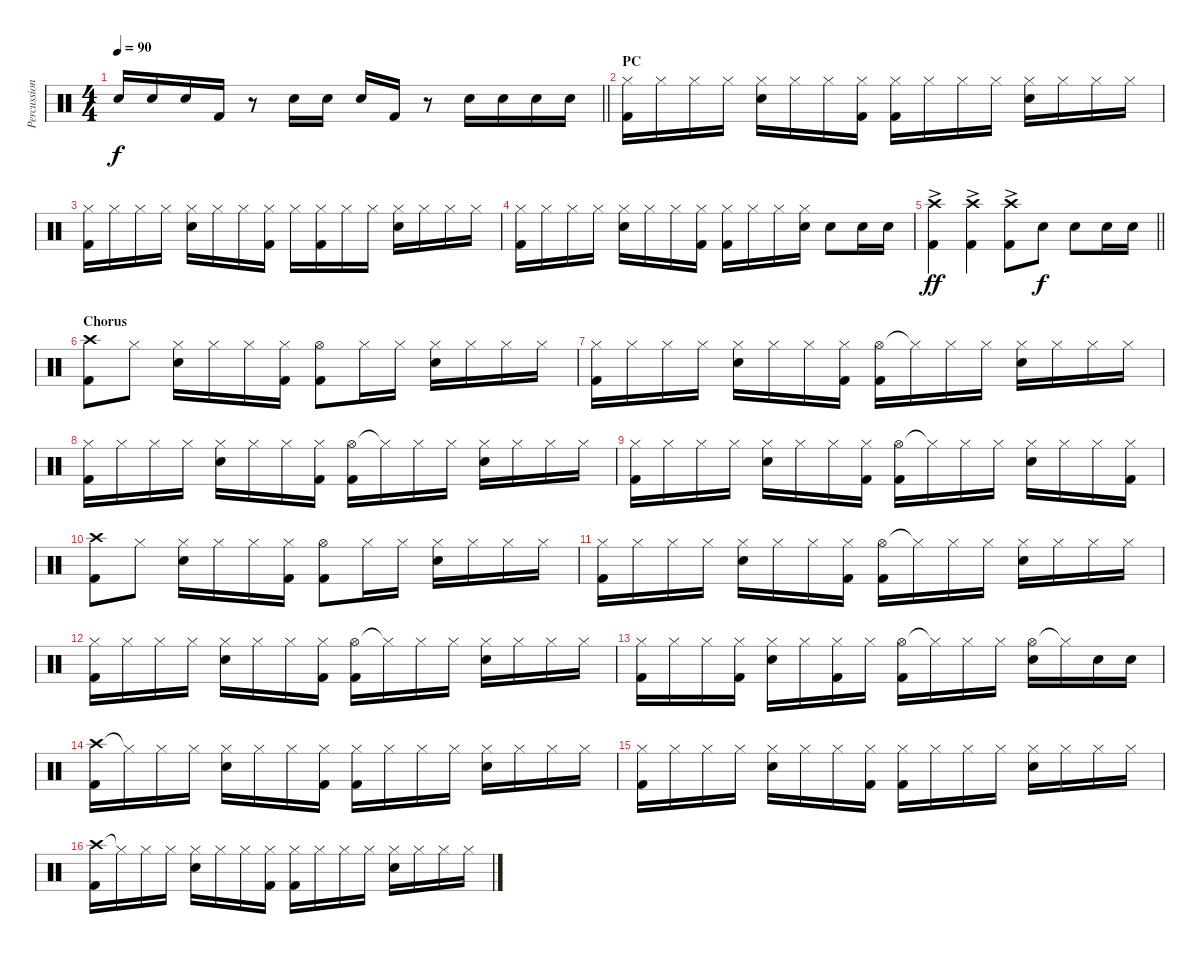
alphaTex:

\track ("Percussion" "Percussion") {instrument percussion}
\staff {score}
\articulation defaults
\ts (4 4)
\tempo 90
\clef neutral
\barLineRight lightlight
\ks c "Electric Snare (hit)".16{dy f} "Electric Snare (hit)".16 "Electric Snare (hit)".16 "Kick (hit) 2".16
r.8 "Electric Snare (hit)".16 "Electric Snare (hit)".16 "Electric Snare (hit)".16 "Kick (hit) 2".16 r.8 "Electric Snare (hit)".16 "Electric Snare (hit)".16 "Electric Snare (hit)".16 "Electric Snare (hit)".16 |
\section ("" "PC")
("Hi-Hat (closed)" "Kick (hit) 2").16 "Hi-Hat (closed)".16 "Hi-Hat (closed)".16 "Hi-Hat (closed)".16 ("Hi-Hat (closed)" "Electric Snare (hit)").16 "Hi-Hat (closed)".16 "Hi-Hat (closed)".16 ("Hi-Hat (closed)" "Kick (hit) 2").16 ("Hi-Hat (closed)" "Kick (hit) 2").16 "Hi-Hat (closed)".16 "Hi-Hat (closed)".16 "Hi-Hat (closed)".16 ("Hi-Hat (closed)" "Electric Snare (hit)").16 "Hi-Hat (closed)".16 "Hi-Hat (closed)".16 "Hi-Hat (closed)".16 |
("Hi-Hat (closed)" "Kick (hit) 2").16 "Hi-Hat (closed)".16 "Hi-Hat (closed)".16 "Hi-Hat (closed)".16 ("Hi-Hat (closed)" "Electric Snare (hit)").16 "Hi-Hat (closed)".16 "Hi-Hat (closed)".16 ("Hi-Hat (closed)" "Kick (hit) 2").16 "Hi-Hat (closed)".16 ("Hi-Hat (closed)" "Kick (hit) 2").16 "Hi-Hat (closed)".16 "Hi-Hat (closed)".16 ("Hi-Hat (closed)" "Electric Snare (hit)").16 "Hi-Hat (closed)".16 "Hi-Hat (closed)".16 "Hi-Hat (closed)".16 |
("Hi-Hat (closed)" "Kick (hit) 2").16 "Hi-Hat (closed)".16 "Hi-Hat (closed)".16 "Hi-Hat (closed)".16 ("Hi-Hat (closed)" "Electric Snare (hit)").16 "Hi-Hat (closed)".16 "Hi-Hat (closed)".16 ("Hi-Hat (closed)" "Kick (hit) 2").16 ("Hi-Hat (closed)" "Kick (hit) 2").16 "Hi-Hat (closed)".16 "Hi-Hat (closed)".16 ("Hi-Hat (closed)" "Electric Snare (hit)").16 "Electric Snare (hit)".8 "Electric Snare (hit)".16 "Electric Snare (hit)".16 |
\barLineRight lightlight
("Crash high (hit)"{ac} "Kick (hit) 2"{ac}).4{dy ff} ("Crash high (hit)"{ac} "Kick (hit) 2"{ac}).4 ("Crash high (hit)"{ac} "Kick (hit) 2"{ac}).8 "Electric Snare (hit)".8{dy f} "Electric Snare (hit)".8 "Electric Snare (hit)".16 "Electric Snare (hit)".16 |
\section ("" "Chorus")
("Crash high (hit)" "Kick (hit) 2").8 "Hi-Hat (closed)".8 ("Hi-Hat (closed)" "Electric Snare (hit)").16 "Hi-Hat (closed)".16 "Hi-Hat (closed)".16 ("Hi-Hat (closed)" "Kick (hit) 2").16 ("Hi-Hat (open)" "Kick (hit) 2").8 "Hi-Hat (closed)".16 "Hi-Hat (closed)".16 ("Hi-Hat (closed)" "Electric Snare (hit)").16 "Hi-Hat (closed)".16 "Hi-Hat (closed)".16 "Hi-Hat (closed)".16 |
("Hi-Hat (closed)" "Kick (hit) 2").16 "Hi-Hat (closed)".16 "Hi-Hat (closed)".16 "Hi-Hat (closed)".16 ("Hi-Hat (closed)" "Electric Snare (hit)").16 "Hi-Hat (closed)".16 "Hi-Hat (closed)".16 ("Hi-Hat (closed)" "Kick (hit) 2").16 ("Hi-Hat (open)" "Kick (hit) 2").16 "Hi-Hat (closed)"{t}.16 "Hi-Hat (closed)".16 "Hi-Hat (closed)".16 ("Hi-Hat (closed)" "Electric Snare (hit)").16 "Hi-Hat (closed)".16 "Hi-Hat (closed)".16 "Hi-Hat (closed)".16 |
("Hi-Hat (closed)" "Kick (hit) 2").16 "Hi-Hat (closed)".16 "Hi-Hat (closed)".16 "Hi-Hat (closed)".16 ("Hi-Hat (closed)" "Electric Snare (hit)").16 "Hi-Hat (closed)".16 "Hi-Hat (closed)".16 ("Hi-Hat (closed)" "Kick (hit) 2").16 ("Hi-Hat (open)" "Kick (hit) 2").16 "Hi-Hat (closed)"{t}.16 "Hi-Hat (closed)".16 "Hi-Hat (closed)".16 ("Hi-Hat (closed)" "Electric Snare (hit)").16 "Hi-Hat (closed)".16 "Hi-Hat (closed)".16 "Hi-Hat (closed)".16 |
("Hi-Hat (closed)" "Kick (hit) 2").16 "Hi-Hat (closed)".16 "Hi-Hat (closed)".16 "Hi-Hat (closed)".16 ("Hi-Hat (closed)" "Electric Snare (hit)").16 "Hi-Hat (closed)".16 "Hi-Hat (closed)".16 ("Hi-Hat (closed)" "Kick (hit) 2").16 ("Hi-Hat (open)" "Kick (hit) 2").16 "Hi-Hat (closed)"{t}.16 "Hi-Hat (closed)".16 "Hi-Hat (closed)".16 ("Hi-Hat (closed)" "Electric Snare (hit)").16 "Hi-Hat (closed)".16 "Hi-Hat (closed)".16 ("Hi-Hat (closed)" "Kick (hit) 2").16 |
("Crash high (hit)" "Kick (hit) 2").8 "Hi-Hat (closed)".8 ("Hi-Hat (closed)" "Electric Snare (hit)").16 "Hi-Hat (closed)".16 "Hi-Hat (closed)".16 ("Hi-Hat (closed)" "Kick (hit) 2").16 ("Hi-Hat (open)" "Kick (hit) 2").8 "Hi-Hat (closed)".16 "Hi-Hat (closed)".16 ("Hi-Hat (closed)" "Electric Snare (hit)").16 "Hi-Hat (closed)".16 "Hi-Hat (closed)".16 "Hi-Hat (closed)".16 |
("Hi-Hat (closed)" "Kick (hit) 2").16 "Hi-Hat (closed)".16 "Hi-Hat (closed)".16 "Hi-Hat (closed)".16 ("Hi-Hat (closed)" "Electric Snare (hit)").16 "Hi-Hat (closed)".16 "Hi-Hat (closed)".16 ("Hi-Hat (closed)" "Kick (hit) 2").16 ("Hi-Hat (open)" "Kick (hit) 2").16 "Hi-Hat (closed)"{t}.16 "Hi-Hat (closed)".16 "Hi-Hat (closed)".16 ("Hi-Hat (closed)" "Electric Snare (hit)").16 "Hi-Hat (closed)".16 "Hi-Hat (closed)".16 "Hi-Hat (closed)".16 |
("Hi-Hat (closed)" "Kick (hit) 2").16 "Hi-Hat (closed)".16 "Hi-Hat (closed)".16 "Hi-Hat (closed)".16 ("Hi-Hat (closed)" "Electric Snare (hit)").16 "Hi-Hat (closed)".16 "Hi-Hat (closed)".16 ("Hi-Hat (closed)" "Kick (hit) 2").16 ("Hi-Hat (open)" "Kick (hit) 2").16 "Hi-Hat (closed)"{t}.16 "Hi-Hat (closed)".16 "Hi-Hat (closed)".16 ("Hi-Hat (closed)" "Electric Snare (hit)").16 "Hi-Hat (closed)".16 "Hi-Hat (closed)".16 "Hi-Hat (closed)".16 |
("Hi-Hat (closed)" "Kick (hit) 2").16 "Hi-Hat (closed)".16 "Hi-Hat (closed)".16 ("Hi-Hat (closed)" "Kick (hit) 2").16 ("Hi-Hat (closed)" "Electric Snare (hit)").16 "Hi-Hat (closed)".16 ("Hi-Hat (closed)" "Kick (hit) 2").16 "Hi-Hat (closed)".16 ("Hi-Hat (open)" "Kick (hit) 2").16 "Hi-Hat (closed)"{t}.16 "Hi-Hat (closed)".16 "Hi-Hat (closed)".16 ("Hi-Hat (open)" "Electric Snare (hit)").16 "Hi-Hat (closed)"{t}.16 "Electric Snare (hit)".16 "Electric Snare (hit)".16 |
("Crash high (hit)" "Kick (hit) 2").16 "Hi-Hat (closed)"{t}.16 "Hi-Hat (closed)".16 "Hi-Hat (closed)".16 ("Hi-Hat (closed)" "Electric Snare (hit)").16 "Hi-Hat (closed)".16 "Hi-Hat (closed)".16 ("Hi-Hat (closed)" "Kick (hit) 2").16 ("Hi-Hat (closed)" "Kick (hit) 2").16 "Hi-Hat (closed)".16 "Hi-Hat (closed)".16 "Hi-Hat (closed)".16 ("Hi-Hat (closed)" "Electric Snare (hit)").16 "Hi-Hat (closed)".16 "Hi-Hat (closed)".16 "Hi-Hat (closed)".16 |
("Hi-Hat (closed)" "Kick (hit) 2").16 "Hi-Hat (closed)".16 "Hi-Hat (closed)".16 "Hi-Hat (closed)".16 ("Hi-Hat (closed)" "Electric Snare (hit)").16 "Hi-Hat (closed)".16 "Hi-Hat (closed)".16 ("Hi-Hat (closed)" "Kick (hit) 2").16 ("Hi-Hat (closed)" "Kick (hit) 2").16 "Hi-Hat (closed)".16 "Hi-Hat (closed)".16 "Hi-Hat (closed)".16 ("Hi-Hat (closed)" "Electric Snare (hit)").16 "Hi-Hat (closed)".16 "Hi-Hat (closed)".16 "Hi-Hat (closed)".16 |
("Crash high (hit)" "Kick (hit) 2").16 "Hi-Hat (closed)"{t}.16 "Hi-Hat (closed)".16 "Hi-Hat (closed)".16 ("Hi-Hat (closed)" "Electric Snare (hit)").16 "Hi-Hat (closed)".16 "Hi-Hat (closed)".16 ("Hi-Hat (closed)" "Kick (hit) 2").16 ("Hi-Hat (closed)" "Kick (hit) 2").16 "Hi-Hat (closed)".16 "Hi-Hat (closed)".16 "Hi-Hat (closed)".16 ("Hi-Hat (closed)" "Electric Snare (hit)").16 "Hi-Hat (closed)".16 "Hi-Hat (closed)".16 "Hi-Hat (closed)".16
